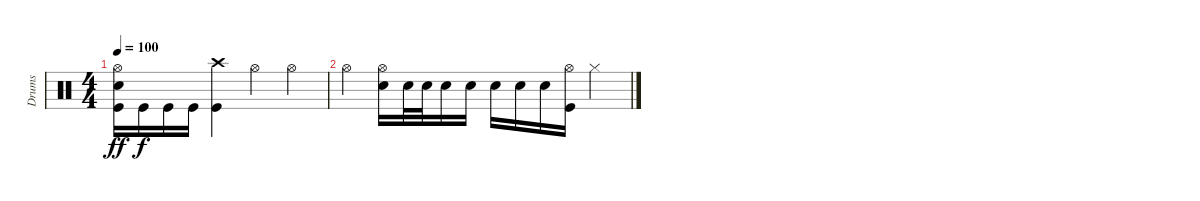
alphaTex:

\track ("Drums" "Drums") {instrument percussion}
\staff {score}
\articulation defaults
\ts (4 4)
\tempo 100
\clef neutral
\ks c
("Hi-Hat (open)" "Snare (hit) 2" "Kick (hit)").16{dy ff} "Kick (hit)".16{dy f} "Kick (hit)".16 "Kick (hit)".16 ("Crash high (hit)" "Kick (hit)").4 "Hi-Hat (open)".4 "Hi-Hat (open)".4 |
"Hi-Hat (open)".4 ("Hi-Hat (open)" "Snare (hit) 2").16 "Snare (hit) 2".32 "Snare (hit) 2".32 "Snare (hit) 2".16 "Snare (hit) 2".16 "Snare (hit) 2".16 "Snare (hit) 2".16 "Snare (hit) 2".16 ("Hi-Hat (open)" "Kick (hit)").16 "Hi-Hat (closed)".4
